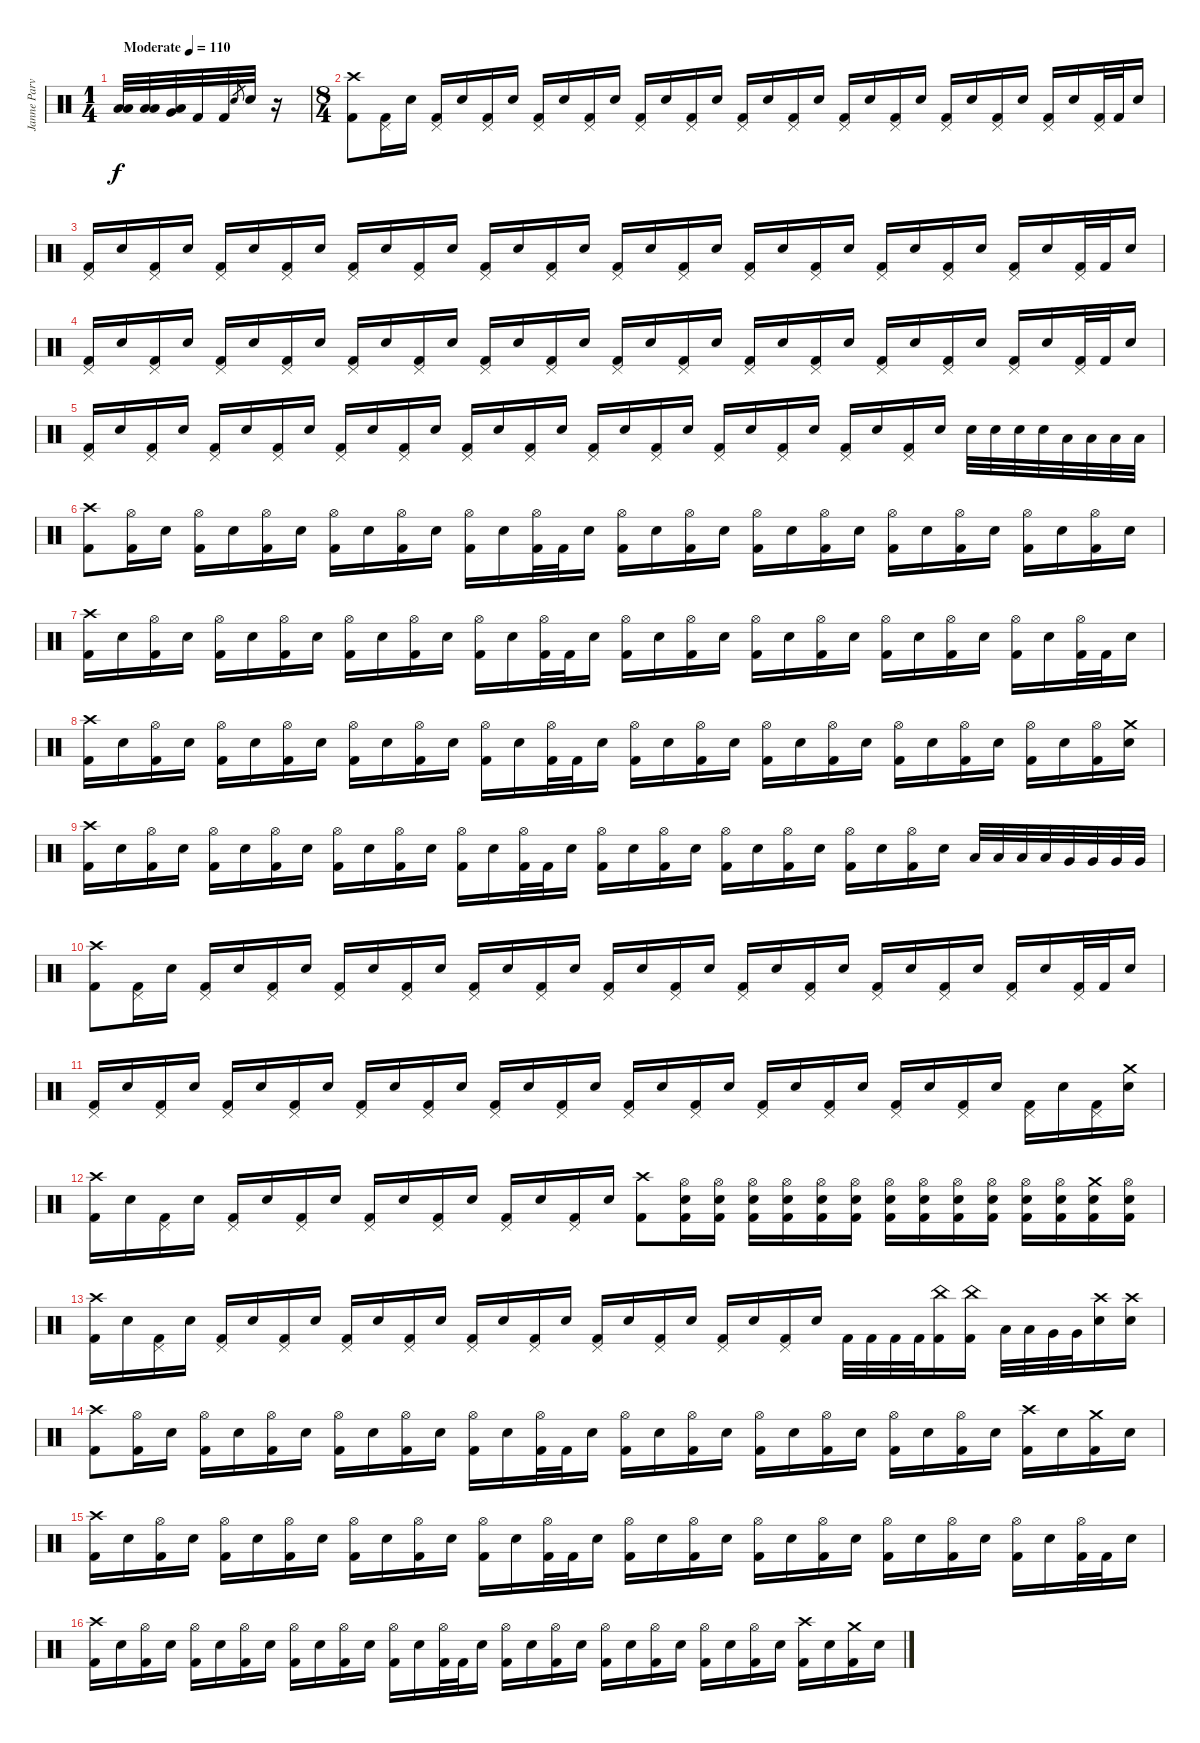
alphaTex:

\track ("Janne Parviainen" "Janne Parv") {instrument percussion}
\staff {score}
\articulation defaults
\ts (1 4)
\tempo (110 "Moderate")
\clef neutral
\ks c
("Low Floor Tom (hit)" "Low Tom (hit)").32{dy f} ("Low Floor Tom (hit)" "Low Tom (hit)").32 ("Low Floor Tom (hit)" "Very Low Tom (hit)").32 "Kick (hit) 2".32 "Kick (hit) 2".32 "Electric Snare (hit)".8{gr} "Electric Snare (hit)".32 r.16 |
\ts (8 4)
("Crash high (hit)" "Kick (hit) 2").8 ("Pedal Hi-Hat (hit)" "Kick (hit) 2").16 "Electric Snare (hit)".16 ("Pedal Hi-Hat (hit)" "Kick (hit) 2").16 "Electric Snare (hit)".16 ("Pedal Hi-Hat (hit)" "Kick (hit) 2").16 "Electric Snare (hit)".16 ("Pedal Hi-Hat (hit)" "Kick (hit) 2").16 "Electric Snare (hit)".16 ("Pedal Hi-Hat (hit)" "Kick (hit) 2").16 "Electric Snare (hit)".16 ("Pedal Hi-Hat (hit)" "Kick (hit) 2").16 "Electric Snare (hit)".16 ("Pedal Hi-Hat (hit)" "Kick (hit) 2").16 "Electric Snare (hit)".16 ("Pedal Hi-Hat (hit)" "Kick (hit) 2").16 "Electric Snare (hit)".16 ("Pedal Hi-Hat (hit)" "Kick (hit) 2").16 "Electric Snare (hit)".16 ("Pedal Hi-Hat (hit)" "Kick (hit) 2").16 "Electric Snare (hit)".16 ("Pedal Hi-Hat (hit)" "Kick (hit) 2").16 "Electric Snare (hit)".16 ("Pedal Hi-Hat (hit)" "Kick (hit) 2").16 "Electric Snare (hit)".16 ("Pedal Hi-Hat (hit)" "Kick (hit) 2").16 "Electric Snare (hit)".16 ("Pedal Hi-Hat (hit)" "Kick (hit) 2").16 "Electric Snare (hit)".16 ("Pedal Hi-Hat (hit)" "Kick (hit) 2").32 "Kick (hit) 2".32 "Electric Snare (hit)".16 |
("Pedal Hi-Hat (hit)" "Kick (hit) 2").16 "Electric Snare (hit)".16 ("Pedal Hi-Hat (hit)" "Kick (hit) 2").16 "Electric Snare (hit)".16 ("Pedal Hi-Hat (hit)" "Kick (hit) 2").16 "Electric Snare (hit)".16 ("Pedal Hi-Hat (hit)" "Kick (hit) 2").16 "Electric Snare (hit)".16 ("Pedal Hi-Hat (hit)" "Kick (hit) 2").16 "Electric Snare (hit)".16 ("Pedal Hi-Hat (hit)" "Kick (hit) 2").16 "Electric Snare (hit)".16 ("Pedal Hi-Hat (hit)" "Kick (hit) 2").16 "Electric Snare (hit)".16 ("Pedal Hi-Hat (hit)" "Kick (hit) 2").16 "Electric Snare (hit)".16 ("Pedal Hi-Hat (hit)" "Kick (hit) 2").16 "Electric Snare (hit)".16 ("Pedal Hi-Hat (hit)" "Kick (hit) 2").16 "Electric Snare (hit)".16 ("Pedal Hi-Hat (hit)" "Kick (hit) 2").16 "Electric Snare (hit)".16 ("Pedal Hi-Hat (hit)" "Kick (hit) 2").16 "Electric Snare (hit)".16 ("Pedal Hi-Hat (hit)" "Kick (hit) 2").16 "Electric Snare (hit)".16 ("Pedal Hi-Hat (hit)" "Kick (hit) 2").16 "Electric Snare (hit)".16 ("Pedal Hi-Hat (hit)" "Kick (hit) 2").16 "Electric Snare (hit)".16 ("Pedal Hi-Hat (hit)" "Kick (hit) 2").32 "Kick (hit) 2".32 "Electric Snare (hit)".16 |
("Pedal Hi-Hat (hit)" "Kick (hit) 2").16 "Electric Snare (hit)".16 ("Pedal Hi-Hat (hit)" "Kick (hit) 2").16 "Electric Snare (hit)".16 ("Pedal Hi-Hat (hit)" "Kick (hit) 2").16 "Electric Snare (hit)".16 ("Pedal Hi-Hat (hit)" "Kick (hit) 2").16 "Electric Snare (hit)".16 ("Pedal Hi-Hat (hit)" "Kick (hit) 2").16 "Electric Snare (hit)".16 ("Pedal Hi-Hat (hit)" "Kick (hit) 2").16 "Electric Snare (hit)".16 ("Pedal Hi-Hat (hit)" "Kick (hit) 2").16 "Electric Snare (hit)".16 ("Pedal Hi-Hat (hit)" "Kick (hit) 2").16 "Electric Snare (hit)".16 ("Pedal Hi-Hat (hit)" "Kick (hit) 2").16 "Electric Snare (hit)".16 ("Pedal Hi-Hat (hit)" "Kick (hit) 2").16 "Electric Snare (hit)".16 ("Pedal Hi-Hat (hit)" "Kick (hit) 2").16 "Electric Snare (hit)".16 ("Pedal Hi-Hat (hit)" "Kick (hit) 2").16 "Electric Snare (hit)".16 ("Pedal Hi-Hat (hit)" "Kick (hit) 2").16 "Electric Snare (hit)".16 ("Pedal Hi-Hat (hit)" "Kick (hit) 2").16 "Electric Snare (hit)".16 ("Pedal Hi-Hat (hit)" "Kick (hit) 2").16 "Electric Snare (hit)".16 ("Pedal Hi-Hat (hit)" "Kick (hit) 2").32 "Kick (hit) 2".32 "Electric Snare (hit)".16 |
("Pedal Hi-Hat (hit)" "Kick (hit) 2").16 "Electric Snare (hit)".16 ("Pedal Hi-Hat (hit)" "Kick (hit) 2").16 "Electric Snare (hit)".16 ("Pedal Hi-Hat (hit)" "Kick (hit) 2").16 "Electric Snare (hit)".16 ("Pedal Hi-Hat (hit)" "Kick (hit) 2").16 "Electric Snare (hit)".16 ("Pedal Hi-Hat (hit)" "Kick (hit) 2").16 "Electric Snare (hit)".16 ("Pedal Hi-Hat (hit)" "Kick (hit) 2").16 "Electric Snare (hit)".16 ("Pedal Hi-Hat (hit)" "Kick (hit) 2").16 "Electric Snare (hit)".16 ("Pedal Hi-Hat (hit)" "Kick (hit) 2").16 "Electric Snare (hit)".16 ("Pedal Hi-Hat (hit)" "Kick (hit) 2").16 "Electric Snare (hit)".16 ("Pedal Hi-Hat (hit)" "Kick (hit) 2").16 "Electric Snare (hit)".16 ("Pedal Hi-Hat (hit)" "Kick (hit) 2").16 "Electric Snare (hit)".16 ("Pedal Hi-Hat (hit)" "Kick (hit) 2").16 "Electric Snare (hit)".16 ("Pedal Hi-Hat (hit)" "Kick (hit) 2").16 "Electric Snare (hit)".16 ("Pedal Hi-Hat (hit)" "Kick (hit) 2").16 "Electric Snare (hit)".16 "Electric Snare (hit)".32 "Electric Snare (hit)".32 "Electric Snare (hit)".32 "Electric Snare (hit)".32 "Low Tom (hit)".32 "Low Tom (hit)".32 "Low Tom (hit)".32 "Low Tom (hit)".32 |
("Crash high (hit)" "Kick (hit) 2").8 ("Hi-Hat (open)" "Kick (hit) 2").16 "Electric Snare (hit)".16 ("Hi-Hat (open)" "Kick (hit) 2").16 "Electric Snare (hit)".16 ("Hi-Hat (open)" "Kick (hit) 2").16 "Electric Snare (hit)".16 ("Hi-Hat (open)" "Kick (hit) 2").16 "Electric Snare (hit)".16 ("Hi-Hat (open)" "Kick (hit) 2").16 "Electric Snare (hit)".16 ("Hi-Hat (open)" "Kick (hit) 2").16 "Electric Snare (hit)".16 ("Hi-Hat (open)" "Kick (hit) 2").32 "Kick (hit) 2".32 "Electric Snare (hit)".16 ("Hi-Hat (open)" "Kick (hit) 2").16 "Electric Snare (hit)".16 ("Hi-Hat (open)" "Kick (hit) 2").16 "Electric Snare (hit)".16 ("Hi-Hat (open)" "Kick (hit) 2").16 "Electric Snare (hit)".16 ("Hi-Hat (open)" "Kick (hit) 2").16 "Electric Snare (hit)".16 ("Hi-Hat (open)" "Kick (hit) 2").16 "Electric Snare (hit)".16 ("Hi-Hat (open)" "Kick (hit) 2").16 "Electric Snare (hit)".16 ("Hi-Hat (open)" "Kick (hit) 2").16 "Electric Snare (hit)".16 ("Hi-Hat (open)" "Kick (hit) 2").16 "Electric Snare (hit)".16 |
("Crash high (hit)" "Kick (hit) 2").16 "Electric Snare (hit)".16 ("Hi-Hat (open)" "Kick (hit) 2").16 "Electric Snare (hit)".16 ("Hi-Hat (open)" "Kick (hit) 2").16 "Electric Snare (hit)".16 ("Hi-Hat (open)" "Kick (hit) 2").16 "Electric Snare (hit)".16 ("Hi-Hat (open)" "Kick (hit) 2").16 "Electric Snare (hit)".16 ("Hi-Hat (open)" "Kick (hit) 2").16 "Electric Snare (hit)".16 ("Hi-Hat (open)" "Kick (hit) 2").16 "Electric Snare (hit)".16 ("Hi-Hat (open)" "Kick (hit) 2").32 "Kick (hit) 2".32 "Electric Snare (hit)".16 ("Hi-Hat (open)" "Kick (hit) 2").16 "Electric Snare (hit)".16 ("Hi-Hat (open)" "Kick (hit) 2").16 "Electric Snare (hit)".16 ("Hi-Hat (open)" "Kick (hit) 2").16 "Electric Snare (hit)".16 ("Hi-Hat (open)" "Kick (hit) 2").16 "Electric Snare (hit)".16 ("Hi-Hat (open)" "Kick (hit) 2").16 "Electric Snare (hit)".16 ("Hi-Hat (open)" "Kick (hit) 2").16 "Electric Snare (hit)".16 ("Hi-Hat (open)" "Kick (hit) 2").16 "Electric Snare (hit)".16 ("Hi-Hat (open)" "Kick (hit) 2").32 "Kick (hit) 2".32 "Electric Snare (hit)".16 |
("Crash high (hit)" "Kick (hit) 2").16 "Electric Snare (hit)".16 ("Hi-Hat (open)" "Kick (hit) 2").16 "Electric Snare (hit)".16 ("Hi-Hat (open)" "Kick (hit) 2").16 "Electric Snare (hit)".16 ("Hi-Hat (open)" "Kick (hit) 2").16 "Electric Snare (hit)".16 ("Hi-Hat (open)" "Kick (hit) 2").16 "Electric Snare (hit)".16 ("Hi-Hat (open)" "Kick (hit) 2").16 "Electric Snare (hit)".16 ("Hi-Hat (open)" "Kick (hit) 2").16 "Electric Snare (hit)".16 ("Hi-Hat (open)" "Kick (hit) 2").32 "Kick (hit) 2".32 "Electric Snare (hit)".16 ("Hi-Hat (open)" "Kick (hit) 2").16 "Electric Snare (hit)".16 ("Hi-Hat (open)" "Kick (hit) 2").16 "Electric Snare (hit)".16 ("Hi-Hat (open)" "Kick (hit) 2").16 "Electric Snare (hit)".16 ("Hi-Hat (open)" "Kick (hit) 2").16 "Electric Snare (hit)".16 ("Hi-Hat (open)" "Kick (hit) 2").16 "Electric Snare (hit)".16 ("Hi-Hat (open)" "Kick (hit) 2").16 "Electric Snare (hit)".16 ("Hi-Hat (open)" "Kick (hit) 2").16 "Electric Snare (hit)".16 ("Hi-Hat (open)" "Kick (hit) 2").16 ("Crash medium (hit)" "Electric Snare (hit)").16 |
("Crash high (hit)" "Kick (hit) 2").16 "Electric Snare (hit)".16 ("Hi-Hat (open)" "Kick (hit) 2").16 "Electric Snare (hit)".16 ("Hi-Hat (open)" "Kick (hit) 2").16 "Electric Snare (hit)".16 ("Hi-Hat (open)" "Kick (hit) 2").16 "Electric Snare (hit)".16 ("Hi-Hat (open)" "Kick (hit) 2").16 "Electric Snare (hit)".16 ("Hi-Hat (open)" "Kick (hit) 2").16 "Electric Snare (hit)".16 ("Hi-Hat (open)" "Kick (hit) 2").16 "Electric Snare (hit)".16 ("Hi-Hat (open)" "Kick (hit) 2").32 "Kick (hit) 2".32 "Electric Snare (hit)".16 ("Hi-Hat (open)" "Kick (hit) 2").16 "Electric Snare (hit)".16 ("Hi-Hat (open)" "Kick (hit) 2").16 "Electric Snare (hit)".16 ("Hi-Hat (open)" "Kick (hit) 2").16 "Electric Snare (hit)".16 ("Hi-Hat (open)" "Kick (hit) 2").16 "Electric Snare (hit)".16 ("Hi-Hat (open)" "Kick (hit) 2").16 "Electric Snare (hit)".16 ("Hi-Hat (open)" "Kick (hit) 2").16 "Electric Snare (hit)".16 "Low Tom (hit)".32 "Low Tom (hit)".32 "Low Tom (hit)".32 "Low Tom (hit)".32 "Very Low Tom (hit)".32 "Very Low Tom (hit)".32 "Very Low Tom (hit)".32 "Very Low Tom (hit)".32 |
("Crash high (hit)" "Kick (hit) 2").8 ("Pedal Hi-Hat (hit)" "Kick (hit) 2").16 "Electric Snare (hit)".16 ("Pedal Hi-Hat (hit)" "Kick (hit) 2").16 "Electric Snare (hit)".16 ("Pedal Hi-Hat (hit)" "Kick (hit) 2").16 "Electric Snare (hit)".16 ("Pedal Hi-Hat (hit)" "Kick (hit) 2").16 "Electric Snare (hit)".16 ("Pedal Hi-Hat (hit)" "Kick (hit) 2").16 "Electric Snare (hit)".16 ("Pedal Hi-Hat (hit)" "Kick (hit) 2").16 "Electric Snare (hit)".16 ("Pedal Hi-Hat (hit)" "Kick (hit) 2").16 "Electric Snare (hit)".16 ("Pedal Hi-Hat (hit)" "Kick (hit) 2").16 "Electric Snare (hit)".16 ("Pedal Hi-Hat (hit)" "Kick (hit) 2").16 "Electric Snare (hit)".16 ("Pedal Hi-Hat (hit)" "Kick (hit) 2").16 "Electric Snare (hit)".16 ("Pedal Hi-Hat (hit)" "Kick (hit) 2").16 "Electric Snare (hit)".16 ("Pedal Hi-Hat (hit)" "Kick (hit) 2").16 "Electric Snare (hit)".16 ("Pedal Hi-Hat (hit)" "Kick (hit) 2").16 "Electric Snare (hit)".16 ("Pedal Hi-Hat (hit)" "Kick (hit) 2").16 "Electric Snare (hit)".16 ("Pedal Hi-Hat (hit)" "Kick (hit) 2").32 "Kick (hit) 2".32 "Electric Snare (hit)".16 |
("Pedal Hi-Hat (hit)" "Kick (hit) 2").16 "Electric Snare (hit)".16 ("Pedal Hi-Hat (hit)" "Kick (hit) 2").16 "Electric Snare (hit)".16 ("Pedal Hi-Hat (hit)" "Kick (hit) 2").16 "Electric Snare (hit)".16 ("Pedal Hi-Hat (hit)" "Kick (hit) 2").16 "Electric Snare (hit)".16 ("Pedal Hi-Hat (hit)" "Kick (hit) 2").16 "Electric Snare (hit)".16 ("Pedal Hi-Hat (hit)" "Kick (hit) 2").16 "Electric Snare (hit)".16 ("Pedal Hi-Hat (hit)" "Kick (hit) 2").16 "Electric Snare (hit)".16 ("Pedal Hi-Hat (hit)" "Kick (hit) 2").16 "Electric Snare (hit)".16 ("Pedal Hi-Hat (hit)" "Kick (hit) 2").16 "Electric Snare (hit)".16 ("Pedal Hi-Hat (hit)" "Kick (hit) 2").16 "Electric Snare (hit)".16 ("Pedal Hi-Hat (hit)" "Kick (hit) 2").16 "Electric Snare (hit)".16 ("Pedal Hi-Hat (hit)" "Kick (hit) 2").16 "Electric Snare (hit)".16 ("Pedal Hi-Hat (hit)" "Kick (hit) 2").16 "Electric Snare (hit)".16 ("Pedal Hi-Hat (hit)" "Kick (hit) 2").16 "Electric Snare (hit)".16 ("Pedal Hi-Hat (hit)" "Kick (hit) 2").16 "Electric Snare (hit)".16 ("Pedal Hi-Hat (hit)" "Kick (hit) 2").16 ("Crash medium (hit)" "Electric Snare (hit)").16 |
("Crash high (hit)" "Kick (hit) 2").16 "Electric Snare (hit)".16 ("Pedal Hi-Hat (hit)" "Kick (hit) 2").16 "Electric Snare (hit)".16 ("Pedal Hi-Hat (hit)" "Kick (hit) 2").16 "Electric Snare (hit)".16 ("Pedal Hi-Hat (hit)" "Kick (hit) 2").16 "Electric Snare (hit)".16 ("Pedal Hi-Hat (hit)" "Kick (hit) 2").16 "Electric Snare (hit)".16 ("Pedal Hi-Hat (hit)" "Kick (hit) 2").16 "Electric Snare (hit)".16 ("Pedal Hi-Hat (hit)" "Kick (hit) 2").16 "Electric Snare (hit)".16 ("Pedal Hi-Hat (hit)" "Kick (hit) 2").16 "Electric Snare (hit)".16 ("Crash high (hit)" "Kick (hit) 2").8 ("Hi-Hat (open)" "Electric Snare (hit)" "Kick (hit) 2").16 ("Hi-Hat (open)" "Electric Snare (hit)" "Kick (hit) 2").16 ("Hi-Hat (open)" "Electric Snare (hit)" "Kick (hit) 2").16 ("Hi-Hat (open)" "Electric Snare (hit)" "Kick (hit) 2").16 ("Hi-Hat (open)" "Electric Snare (hit)" "Kick (hit) 2").16 ("Hi-Hat (open)" "Electric Snare (hit)" "Kick (hit) 2").16 ("Hi-Hat (open)" "Electric Snare (hit)" "Kick (hit) 2").16 ("Hi-Hat (open)" "Electric Snare (hit)" "Kick (hit) 2").16 ("Hi-Hat (open)" "Electric Snare (hit)" "Kick (hit) 2").16 ("Hi-Hat (open)" "Electric Snare (hit)" "Kick (hit) 2").16 ("Hi-Hat (open)" "Electric Snare (hit)" "Kick (hit) 2").16 ("Hi-Hat (open)" "Electric Snare (hit)" "Kick (hit) 2").16 ("Crash medium (hit)" "Electric Snare (hit)" "Kick (hit) 2").16 ("Hi-Hat (open)" "Electric Snare (hit)" "Kick (hit) 2").16 |
("Crash high (hit)" "Kick (hit) 2").16 "Electric Snare (hit)".16 ("Pedal Hi-Hat (hit)" "Kick (hit) 2").16 "Electric Snare (hit)".16 ("Pedal Hi-Hat (hit)" "Kick (hit) 2").16 "Electric Snare (hit)".16 ("Pedal Hi-Hat (hit)" "Kick (hit) 2").16 "Electric Snare (hit)".16 ("Pedal Hi-Hat (hit)" "Kick (hit) 2").16 "Electric Snare (hit)".16 ("Pedal Hi-Hat (hit)" "Kick (hit) 2").16 "Electric Snare (hit)".16 ("Pedal Hi-Hat (hit)" "Kick (hit) 2").16 "Electric Snare (hit)".16 ("Pedal Hi-Hat (hit)" "Kick (hit) 2").16 "Electric Snare (hit)".16 ("Pedal Hi-Hat (hit)" "Kick (hit) 2").16 "Electric Snare (hit)".16 ("Pedal Hi-Hat (hit)" "Kick (hit) 2").16 "Electric Snare (hit)".16 ("Pedal Hi-Hat (hit)" "Kick (hit) 2").16 "Electric Snare (hit)".16 ("Pedal Hi-Hat (hit)" "Kick (hit) 2").16 "Electric Snare (hit)".16 "Kick (hit) 2".32 "Kick (hit) 2".32 "Kick (hit) 2".32 "Kick (hit) 2".32 ("China (hit)" "Kick (hit) 2").16 ("China (hit)" "Kick (hit) 2").16 "Low Tom (hit)".32 "Low Tom (hit)".32 "Very Low Tom (hit)".32 "Very Low Tom (hit)".32 ("Crash high (hit)" "Electric Snare (hit)").16 ("Crash high (hit)" "Electric Snare (hit)").16 |
("Crash high (hit)" "Kick (hit) 2").8 ("Hi-Hat (open)" "Kick (hit) 2").16 "Electric Snare (hit)".16 ("Hi-Hat (open)" "Kick (hit) 2").16 "Electric Snare (hit)".16 ("Hi-Hat (open)" "Kick (hit) 2").16 "Electric Snare (hit)".16 ("Hi-Hat (open)" "Kick (hit) 2").16 "Electric Snare (hit)".16 ("Hi-Hat (open)" "Kick (hit) 2").16 "Electric Snare (hit)".16 ("Hi-Hat (open)" "Kick (hit) 2").16 "Electric Snare (hit)".16 ("Hi-Hat (open)" "Kick (hit) 2").32 "Kick (hit) 2".32 "Electric Snare (hit)".16 ("Hi-Hat (open)" "Kick (hit) 2").16 "Electric Snare (hit)".16 ("Hi-Hat (open)" "Kick (hit) 2").16 "Electric Snare (hit)".16 ("Hi-Hat (open)" "Kick (hit) 2").16 "Electric Snare (hit)".16 ("Hi-Hat (open)" "Kick (hit) 2").16 "Electric Snare (hit)".16 ("Hi-Hat (open)" "Kick (hit) 2").16 "Electric Snare (hit)".16 ("Hi-Hat (open)" "Kick (hit) 2").16 "Electric Snare (hit)".16 ("Crash high (hit)" "Kick (hit) 2").16 "Electric Snare (hit)".16 ("Crash medium (hit)" "Kick (hit) 2").16 "Electric Snare (hit)".16 |
("Crash high (hit)" "Kick (hit) 2").16 "Electric Snare (hit)".16 ("Hi-Hat (open)" "Kick (hit) 2").16 "Electric Snare (hit)".16 ("Hi-Hat (open)" "Kick (hit) 2").16 "Electric Snare (hit)".16 ("Hi-Hat (open)" "Kick (hit) 2").16 "Electric Snare (hit)".16 ("Hi-Hat (open)" "Kick (hit) 2").16 "Electric Snare (hit)".16 ("Hi-Hat (open)" "Kick (hit) 2").16 "Electric Snare (hit)".16 ("Hi-Hat (open)" "Kick (hit) 2").16 "Electric Snare (hit)".16 ("Hi-Hat (open)" "Kick (hit) 2").32 "Kick (hit) 2".32 "Electric Snare (hit)".16 ("Hi-Hat (open)" "Kick (hit) 2").16 "Electric Snare (hit)".16 ("Hi-Hat (open)" "Kick (hit) 2").16 "Electric Snare (hit)".16 ("Hi-Hat (open)" "Kick (hit) 2").16 "Electric Snare (hit)".16 ("Hi-Hat (open)" "Kick (hit) 2").16 "Electric Snare (hit)".16 ("Hi-Hat (open)" "Kick (hit) 2").16 "Electric Snare (hit)".16 ("Hi-Hat (open)" "Kick (hit) 2").16 "Electric Snare (hit)".16 ("Hi-Hat (open)" "Kick (hit) 2").16 "Electric Snare (hit)".16 ("Hi-Hat (open)" "Kick (hit) 2").32 "Kick (hit) 2".32 "Electric Snare (hit)".16 |
("Crash high (hit)" "Kick (hit) 2").16 "Electric Snare (hit)".16 ("Hi-Hat (open)" "Kick (hit) 2").16 "Electric Snare (hit)".16 ("Hi-Hat (open)" "Kick (hit) 2").16 "Electric Snare (hit)".16 ("Hi-Hat (open)" "Kick (hit) 2").16 "Electric Snare (hit)".16 ("Hi-Hat (open)" "Kick (hit) 2").16 "Electric Snare (hit)".16 ("Hi-Hat (open)" "Kick (hit) 2").16 "Electric Snare (hit)".16 ("Hi-Hat (open)" "Kick (hit) 2").16 "Electric Snare (hit)".16 ("Hi-Hat (open)" "Kick (hit) 2").32 "Kick (hit) 2".32 "Electric Snare (hit)".16 ("Hi-Hat (open)" "Kick (hit) 2").16 "Electric Snare (hit)".16 ("Hi-Hat (open)" "Kick (hit) 2").16 "Electric Snare (hit)".16 ("Hi-Hat (open)" "Kick (hit) 2").16 "Electric Snare (hit)".16 ("Hi-Hat (open)" "Kick (hit) 2").16 "Electric Snare (hit)".16 ("Hi-Hat (open)" "Kick (hit) 2").16 "Electric Snare (hit)".16 ("Hi-Hat (open)" "Kick (hit) 2").16 "Electric Snare (hit)".16 ("Crash high (hit)" "Kick (hit) 2").16 "Electric Snare (hit)".16 ("Crash medium (hit)" "Kick (hit) 2").16 "Electric Snare (hit)".16
